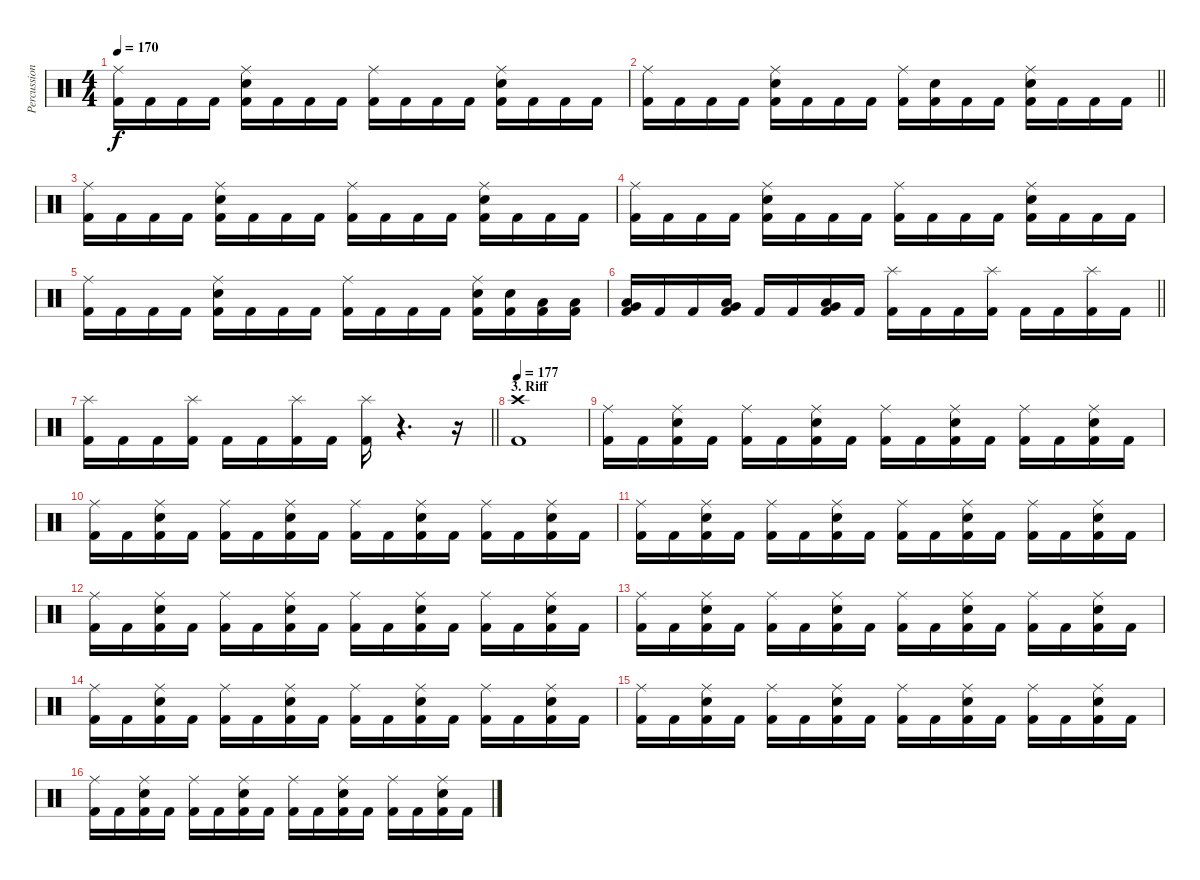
\track ("Percussion" "Percussion") {instrument percussion}
\staff {score}
\articulation defaults
\ts (4 4)
\tempo 170
\clef neutral
\ks c
("Ride (middle)" "Kick (hit) 2").16{dy f} "Kick (hit) 2".16 "Kick (hit) 2".16 "Kick (hit) 2".16 ("Ride (middle)" "Snare (hit) 2" "Kick (hit) 2").16 "Kick (hit) 2".16 "Kick (hit) 2".16 "Kick (hit) 2".16 ("Ride (middle)" "Kick (hit) 2").16 "Kick (hit) 2".16 "Kick (hit) 2".16 "Kick (hit) 2".16 ("Ride (middle)" "Snare (hit) 2" "Kick (hit) 2").16 "Kick (hit) 2".16 "Kick (hit) 2".16 "Kick (hit) 2".16 |
\barLineRight lightlight
("Ride (middle)" "Kick (hit) 2").16 "Kick (hit) 2".16 "Kick (hit) 2".16 "Kick (hit) 2".16 ("Ride (middle)" "Snare (hit) 2" "Kick (hit) 2").16 "Kick (hit) 2".16 "Kick (hit) 2".16 "Kick (hit) 2".16 ("Ride (middle)" "Kick (hit) 2").16 ("Snare (hit) 2" "Kick (hit) 2").16 "Kick (hit) 2".16 "Kick (hit) 2".16 ("Ride (middle)" "Snare (hit) 2" "Kick (hit) 2").16 "Kick (hit) 2".16 "Kick (hit) 2".16 "Kick (hit) 2".16 |
("Ride (middle)" "Kick (hit) 2").16 "Kick (hit) 2".16 "Kick (hit) 2".16 "Kick (hit) 2".16 ("Ride (middle)" "Snare (hit) 2" "Kick (hit) 2").16 "Kick (hit) 2".16 "Kick (hit) 2".16 "Kick (hit) 2".16 ("Ride (middle)" "Kick (hit) 2").16 "Kick (hit) 2".16 "Kick (hit) 2".16 "Kick (hit) 2".16 ("Ride (middle)" "Snare (hit) 2" "Kick (hit) 2").16 "Kick (hit) 2".16 "Kick (hit) 2".16 "Kick (hit) 2".16 |
("Ride (middle)" "Kick (hit) 2").16 "Kick (hit) 2".16 "Kick (hit) 2".16 "Kick (hit) 2".16 ("Ride (middle)" "Snare (hit) 2" "Kick (hit) 2").16 "Kick (hit) 2".16 "Kick (hit) 2".16 "Kick (hit) 2".16 ("Ride (middle)" "Kick (hit) 2").16 "Kick (hit) 2".16 "Kick (hit) 2".16 "Kick (hit) 2".16 ("Ride (middle)" "Snare (hit) 2" "Kick (hit) 2").16 "Kick (hit) 2".16 "Kick (hit) 2".16 "Kick (hit) 2".16 |
("Ride (middle)" "Kick (hit) 2").16 "Kick (hit) 2".16 "Kick (hit) 2".16 "Kick (hit) 2".16 ("Ride (middle)" "Snare (hit) 2" "Kick (hit) 2").16 "Kick (hit) 2".16 "Kick (hit) 2".16 "Kick (hit) 2".16 ("Ride (middle)" "Kick (hit) 2").16 "Kick (hit) 2".16 "Kick (hit) 2".16 "Kick (hit) 2".16 ("Ride (middle)" "Snare (hit) 2" "Kick (hit) 2").16 ("Snare (hit) 2" "Kick (hit) 2").16 ("Low Floor Tom (hit)" "Kick (hit) 2").16 ("Low Floor Tom (hit)" "Kick (hit) 2").16 |
\barLineRight lightlight
("Very Low Tom (hit)" "Low Floor Tom (hit)" "Kick (hit) 2").16 "Kick (hit) 2".16 "Kick (hit) 2".16 ("Very Low Tom (hit)" "Low Floor Tom (hit)" "Kick (hit) 2").16 "Kick (hit) 2".16 "Kick (hit) 2".16 ("Very Low Tom (hit)" "Low Floor Tom (hit)" "Kick (hit) 2").16 "Kick (hit) 2".16 ("Splash (hit)" "Kick (hit) 2").16 "Kick (hit) 2".16 "Kick (hit) 2".16 ("Splash (hit)" "Kick (hit) 2").16 "Kick (hit) 2".16 "Kick (hit) 2".16 ("Splash (hit)" "Kick (hit) 2").16 "Kick (hit) 2".16 |
\barLineRight lightlight
("Splash (hit)" "Kick (hit) 2").16 "Kick (hit) 2".16 "Kick (hit) 2".16 ("Splash (hit)" "Kick (hit) 2").16 "Kick (hit) 2".16 "Kick (hit) 2".16 ("Splash (hit)" "Kick (hit) 2").16 "Kick (hit) 2".16 ("Splash (hit)" "Kick (hit) 2").16 r.4{d} r.16 |
\section ("" "3. Riff")
\tempo 177
("Crash high (hit)" "Kick (hit) 2").1 |
("Ride (middle)" "Kick (hit) 2").16 "Kick (hit) 2".16 ("Ride (middle)" "Snare (hit) 2" "Kick (hit) 2").16 "Kick (hit) 2".16 ("Ride (middle)" "Kick (hit) 2").16 "Kick (hit) 2".16 ("Ride (middle)" "Snare (hit) 2" "Kick (hit) 2").16 "Kick (hit) 2".16 ("Ride (middle)" "Kick (hit) 2").16 "Kick (hit) 2".16 ("Ride (middle)" "Snare (hit) 2" "Kick (hit) 2").16 "Kick (hit) 2".16 ("Ride (middle)" "Kick (hit) 2").16 "Kick (hit) 2".16 ("Ride (middle)" "Snare (hit) 2" "Kick (hit) 2").16 "Kick (hit) 2".16 |
("Ride (middle)" "Kick (hit) 2").16 "Kick (hit) 2".16 ("Ride (middle)" "Snare (hit) 2" "Kick (hit) 2").16 "Kick (hit) 2".16 ("Ride (middle)" "Kick (hit) 2").16 "Kick (hit) 2".16 ("Ride (middle)" "Snare (hit) 2" "Kick (hit) 2").16 "Kick (hit) 2".16 ("Ride (middle)" "Kick (hit) 2").16 "Kick (hit) 2".16 ("Ride (middle)" "Snare (hit) 2" "Kick (hit) 2").16 "Kick (hit) 2".16 ("Ride (middle)" "Kick (hit) 2").16 "Kick (hit) 2".16 ("Ride (middle)" "Snare (hit) 2" "Kick (hit) 2").16 "Kick (hit) 2".16 |
("Ride (middle)" "Kick (hit) 2").16 "Kick (hit) 2".16 ("Ride (middle)" "Snare (hit) 2" "Kick (hit) 2").16 "Kick (hit) 2".16 ("Ride (middle)" "Kick (hit) 2").16 "Kick (hit) 2".16 ("Ride (middle)" "Snare (hit) 2" "Kick (hit) 2").16 "Kick (hit) 2".16 ("Ride (middle)" "Kick (hit) 2").16 "Kick (hit) 2".16 ("Ride (middle)" "Snare (hit) 2" "Kick (hit) 2").16 "Kick (hit) 2".16 ("Ride (middle)" "Kick (hit) 2").16 "Kick (hit) 2".16 ("Ride (middle)" "Snare (hit) 2" "Kick (hit) 2").16 "Kick (hit) 2".16 |
("Ride (middle)" "Kick (hit) 2").16 "Kick (hit) 2".16 ("Ride (middle)" "Snare (hit) 2" "Kick (hit) 2").16 "Kick (hit) 2".16 ("Ride (middle)" "Kick (hit) 2").16 "Kick (hit) 2".16 ("Ride (middle)" "Snare (hit) 2" "Kick (hit) 2").16 "Kick (hit) 2".16 ("Ride (middle)" "Kick (hit) 2").16 "Kick (hit) 2".16 ("Ride (middle)" "Snare (hit) 2" "Kick (hit) 2").16 "Kick (hit) 2".16 ("Ride (middle)" "Kick (hit) 2").16 "Kick (hit) 2".16 ("Ride (middle)" "Snare (hit) 2" "Kick (hit) 2").16 "Kick (hit) 2".16 |
("Ride (middle)" "Kick (hit) 2").16 "Kick (hit) 2".16 ("Ride (middle)" "Snare (hit) 2" "Kick (hit) 2").16 "Kick (hit) 2".16 ("Ride (middle)" "Kick (hit) 2").16 "Kick (hit) 2".16 ("Ride (middle)" "Snare (hit) 2" "Kick (hit) 2").16 "Kick (hit) 2".16 ("Ride (middle)" "Kick (hit) 2").16 "Kick (hit) 2".16 ("Ride (middle)" "Snare (hit) 2" "Kick (hit) 2").16 "Kick (hit) 2".16 ("Ride (middle)" "Kick (hit) 2").16 "Kick (hit) 2".16 ("Ride (middle)" "Snare (hit) 2" "Kick (hit) 2").16 "Kick (hit) 2".16 |
("Ride (middle)" "Kick (hit) 2").16 "Kick (hit) 2".16 ("Ride (middle)" "Snare (hit) 2" "Kick (hit) 2").16 "Kick (hit) 2".16 ("Ride (middle)" "Kick (hit) 2").16 "Kick (hit) 2".16 ("Ride (middle)" "Snare (hit) 2" "Kick (hit) 2").16 "Kick (hit) 2".16 ("Ride (middle)" "Kick (hit) 2").16 "Kick (hit) 2".16 ("Ride (middle)" "Snare (hit) 2" "Kick (hit) 2").16 "Kick (hit) 2".16 ("Ride (middle)" "Kick (hit) 2").16 "Kick (hit) 2".16 ("Ride (middle)" "Snare (hit) 2" "Kick (hit) 2").16 "Kick (hit) 2".16 |
("Ride (middle)" "Kick (hit) 2").16 "Kick (hit) 2".16 ("Ride (middle)" "Snare (hit) 2" "Kick (hit) 2").16 "Kick (hit) 2".16 ("Ride (middle)" "Kick (hit) 2").16 "Kick (hit) 2".16 ("Ride (middle)" "Snare (hit) 2" "Kick (hit) 2").16 "Kick (hit) 2".16 ("Ride (middle)" "Kick (hit) 2").16 "Kick (hit) 2".16 ("Ride (middle)" "Snare (hit) 2" "Kick (hit) 2").16 "Kick (hit) 2".16 ("Ride (middle)" "Kick (hit) 2").16 "Kick (hit) 2".16 ("Ride (middle)" "Snare (hit) 2" "Kick (hit) 2").16 "Kick (hit) 2".16 |
("Ride (middle)" "Kick (hit) 2").16 "Kick (hit) 2".16 ("Ride (middle)" "Snare (hit) 2" "Kick (hit) 2").16 "Kick (hit) 2".16 ("Ride (middle)" "Kick (hit) 2").16 "Kick (hit) 2".16 ("Ride (middle)" "Snare (hit) 2" "Kick (hit) 2").16 "Kick (hit) 2".16 ("Ride (middle)" "Kick (hit) 2").16 "Kick (hit) 2".16 ("Ride (middle)" "Snare (hit) 2" "Kick (hit) 2").16 "Kick (hit) 2".16 ("Ride (middle)" "Kick (hit) 2").16 "Kick (hit) 2".16 ("Ride (middle)" "Snare (hit) 2" "Kick (hit) 2").16 "Kick (hit) 2".16
